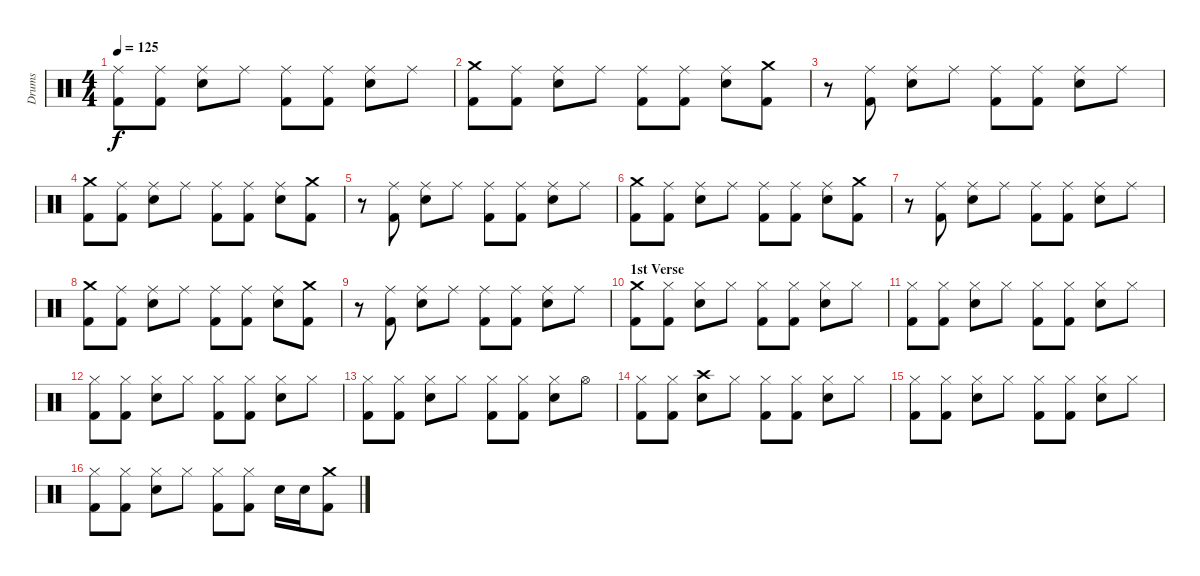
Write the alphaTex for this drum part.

\track ("Drums" "Drums") {instrument percussion}
\staff {score}
\articulation defaults
\ts (4 4)
\tempo 125
\clef neutral
\ks c
("Ride (middle)" "Kick (hit) 2").8{dy f} ("Ride (middle)" "Kick (hit) 2").8 ("Ride (middle)" "Snare (hit) 2").8 "Ride (middle)".8 ("Ride (middle)" "Kick (hit) 2").8 ("Ride (middle)" "Kick (hit) 2").8 ("Ride (middle)" "Snare (hit) 2").8 "Ride (middle)".8 |
("Crash medium (hit)" "Kick (hit) 2").8 ("Ride (middle)" "Kick (hit) 2").8 ("Ride (middle)" "Snare (hit) 2").8 "Ride (middle)".8 ("Ride (middle)" "Kick (hit) 2").8 ("Ride (middle)" "Kick (hit) 2").8 ("Ride (middle)" "Snare (hit) 2").8 ("Crash medium (hit)" "Kick (hit) 2").8 |
r.8 ("Ride (middle)" "Kick (hit) 2").8 ("Ride (middle)" "Snare (hit) 2").8 "Ride (middle)".8 ("Ride (middle)" "Kick (hit) 2").8 ("Ride (middle)" "Kick (hit) 2").8 ("Ride (middle)" "Snare (hit) 2").8 "Ride (middle)".8 |
("Crash medium (hit)" "Kick (hit) 2").8 ("Ride (middle)" "Kick (hit) 2").8 ("Ride (middle)" "Snare (hit) 2").8 "Ride (middle)".8 ("Ride (middle)" "Kick (hit) 2").8 ("Ride (middle)" "Kick (hit) 2").8 ("Ride (middle)" "Snare (hit) 2").8 ("Crash medium (hit)" "Kick (hit) 2").8 |
r.8 ("Ride (middle)" "Kick (hit) 2").8 ("Ride (middle)" "Snare (hit) 2").8 "Ride (middle)".8 ("Ride (middle)" "Kick (hit) 2").8 ("Ride (middle)" "Kick (hit) 2").8 ("Ride (middle)" "Snare (hit) 2").8 "Ride (middle)".8 |
("Crash medium (hit)" "Kick (hit) 2").8 ("Ride (middle)" "Kick (hit) 2").8 ("Ride (middle)" "Snare (hit) 2").8 "Ride (middle)".8 ("Ride (middle)" "Kick (hit) 2").8 ("Ride (middle)" "Kick (hit) 2").8 ("Ride (middle)" "Snare (hit) 2").8 ("Crash medium (hit)" "Kick (hit) 2").8 |
r.8 ("Ride (middle)" "Kick (hit) 2").8 ("Ride (middle)" "Snare (hit) 2").8 "Ride (middle)".8 ("Ride (middle)" "Kick (hit) 2").8 ("Ride (middle)" "Kick (hit) 2").8 ("Ride (middle)" "Snare (hit) 2").8 "Ride (middle)".8 |
("Crash medium (hit)" "Kick (hit) 2").8 ("Ride (middle)" "Kick (hit) 2").8 ("Ride (middle)" "Snare (hit) 2").8 "Ride (middle)".8 ("Ride (middle)" "Kick (hit) 2").8 ("Ride (middle)" "Kick (hit) 2").8 ("Ride (middle)" "Snare (hit) 2").8 ("Crash medium (hit)" "Kick (hit) 2").8 |
r.8 ("Ride (middle)" "Kick (hit) 2").8 ("Ride (middle)" "Snare (hit) 2").8 "Ride (middle)".8 ("Ride (middle)" "Kick (hit) 2").8 ("Ride (middle)" "Kick (hit) 2").8 ("Ride (middle)" "Snare (hit) 2").8 "Ride (middle)".8 |
\section ("" "1st Verse")
("Crash medium (hit)" "Kick (hit) 2").8 ("Hi-Hat (closed)" "Kick (hit) 2").8 ("Hi-Hat (closed)" "Snare (hit) 2").8 "Hi-Hat (closed)".8 ("Hi-Hat (closed)" "Kick (hit) 2").8 ("Hi-Hat (closed)" "Kick (hit) 2").8 ("Hi-Hat (closed)" "Snare (hit) 2").8 "Hi-Hat (closed)".8 |
("Hi-Hat (closed)" "Kick (hit) 2").8 ("Hi-Hat (closed)" "Kick (hit) 2").8 ("Hi-Hat (closed)" "Snare (hit) 2").8 "Hi-Hat (closed)".8 ("Hi-Hat (closed)" "Kick (hit) 2").8 ("Hi-Hat (closed)" "Kick (hit) 2").8 ("Hi-Hat (closed)" "Snare (hit) 2").8 "Hi-Hat (closed)".8 |
("Hi-Hat (closed)" "Kick (hit) 2").8 ("Hi-Hat (closed)" "Kick (hit) 2").8 ("Hi-Hat (closed)" "Snare (hit) 2").8 "Hi-Hat (closed)".8 ("Hi-Hat (closed)" "Kick (hit) 2").8 ("Hi-Hat (closed)" "Kick (hit) 2").8 ("Hi-Hat (closed)" "Snare (hit) 2").8 "Hi-Hat (closed)".8 |
("Hi-Hat (closed)" "Kick (hit) 2").8 ("Hi-Hat (closed)" "Kick (hit) 2").8 ("Hi-Hat (closed)" "Snare (hit) 2").8 "Hi-Hat (closed)".8 ("Hi-Hat (closed)" "Kick (hit) 2").8 ("Hi-Hat (closed)" "Kick (hit) 2").8 ("Hi-Hat (closed)" "Snare (hit) 2").8 "Hi-Hat (open)".8 |
("Hi-Hat (closed)" "Kick (hit) 2").8 ("Hi-Hat (closed)" "Kick (hit) 2").8 ("Crash high (hit)" "Snare (hit) 2").8 "Hi-Hat (closed)".8 ("Hi-Hat (closed)" "Kick (hit) 2").8 ("Hi-Hat (closed)" "Kick (hit) 2").8 ("Hi-Hat (closed)" "Snare (hit) 2").8 "Hi-Hat (closed)".8 |
("Hi-Hat (closed)" "Kick (hit) 2").8 ("Hi-Hat (closed)" "Kick (hit) 2").8 ("Hi-Hat (closed)" "Snare (hit) 2").8 "Hi-Hat (closed)".8 ("Hi-Hat (closed)" "Kick (hit) 2").8 ("Hi-Hat (closed)" "Kick (hit) 2").8 ("Hi-Hat (closed)" "Snare (hit) 2").8 "Hi-Hat (closed)".8 |
("Hi-Hat (closed)" "Kick (hit) 2").8 ("Hi-Hat (closed)" "Kick (hit) 2").8 ("Hi-Hat (closed)" "Snare (hit) 2").8 "Hi-Hat (closed)".8 ("Hi-Hat (closed)" "Kick (hit) 2").8 ("Hi-Hat (closed)" "Kick (hit) 2").8 "Snare (hit) 2".16 "Snare (hit) 2".16 ("Crash medium (hit)" "Kick (hit) 2").8
